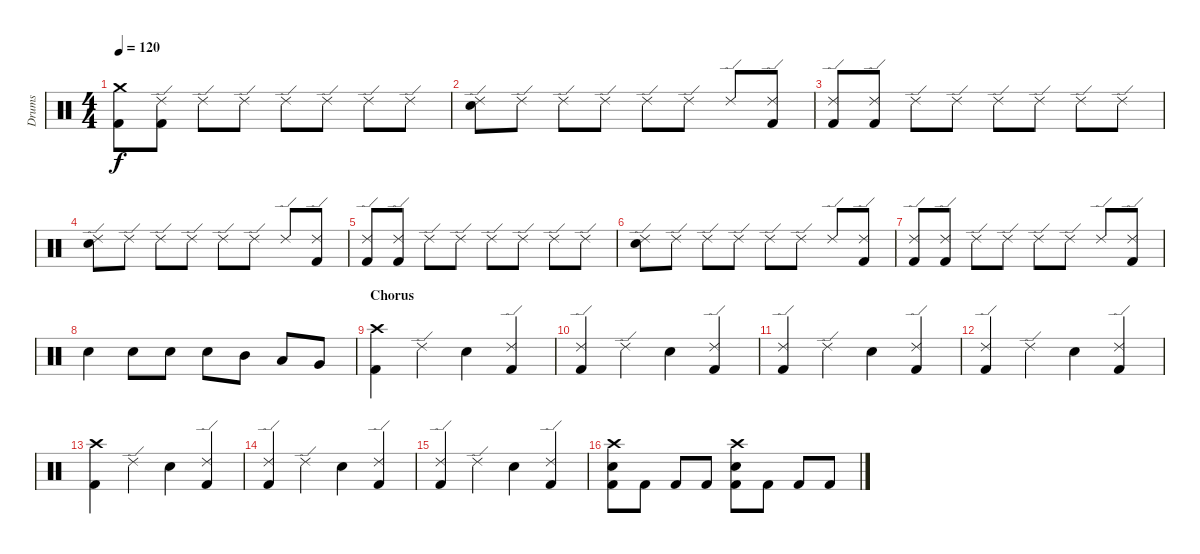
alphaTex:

\track ("Drums" "Drums") {instrument percussion}
\staff {score}
\articulation defaults
\ts (4 4)
\tempo 120
\clef neutral
\ks c
("Crash medium (hit)" "Kick (hit) 2").8{dy f} ("Ride (edge) 2" "Kick (hit) 2").8 "Ride (edge) 2".8 "Ride (edge) 2".8 "Ride (edge) 2".8 "Ride (edge) 2".8 "Ride (edge) 2".8 "Ride (edge) 2".8 |
("Ride (edge) 2" "Snare (hit) 2").8 "Ride (edge) 2".8 "Ride (edge) 2".8 "Ride (edge) 2".8 "Ride (edge) 2".8 "Ride (edge) 2".8 "Ride (edge) 2".8 ("Ride (edge) 2" "Kick (hit) 2").8 |
("Ride (edge) 2" "Kick (hit) 2").8 ("Ride (edge) 2" "Kick (hit) 2").8 "Ride (edge) 2".8 "Ride (edge) 2".8 "Ride (edge) 2".8 "Ride (edge) 2".8 "Ride (edge) 2".8 "Ride (edge) 2".8 |
("Ride (edge) 2" "Snare (hit) 2").8 "Ride (edge) 2".8 "Ride (edge) 2".8 "Ride (edge) 2".8 "Ride (edge) 2".8 "Ride (edge) 2".8 "Ride (edge) 2".8 ("Ride (edge) 2" "Kick (hit) 2").8 |
("Ride (edge) 2" "Kick (hit) 2").8 ("Ride (edge) 2" "Kick (hit) 2").8 "Ride (edge) 2".8 "Ride (edge) 2".8 "Ride (edge) 2".8 "Ride (edge) 2".8 "Ride (edge) 2".8 "Ride (edge) 2".8 |
("Ride (edge) 2" "Snare (hit) 2").8 "Ride (edge) 2".8 "Ride (edge) 2".8 "Ride (edge) 2".8 "Ride (edge) 2".8 "Ride (edge) 2".8 "Ride (edge) 2".8 ("Ride (edge) 2" "Kick (hit) 2").8 |
("Ride (edge) 2" "Kick (hit) 2").8 ("Ride (edge) 2" "Kick (hit) 2").8 "Ride (edge) 2".8 "Ride (edge) 2".8 "Ride (edge) 2".8 "Ride (edge) 2".8 "Ride (edge) 2".8 ("Ride (edge) 2" "Kick (hit) 2").8 |
"Snare (hit) 2".4 "Snare (hit) 2".8 "Snare (hit) 2".8 "Snare (hit) 2".8 "Mid Tom (hit)".8 "Low Tom (hit)".8 "Very Low Tom (hit)".8 |
\section ("" "Chorus")
("Crash high (hit)" "Kick (hit) 2").4 "Ride (edge) 2".4 "Snare (hit) 2".4 ("Ride (edge) 2" "Kick (hit) 2").4 |
("Ride (edge) 2" "Kick (hit) 2").4 "Ride (edge) 2".4 "Snare (hit) 2".4 ("Ride (edge) 2" "Kick (hit) 2").4 |
("Ride (edge) 2" "Kick (hit) 2").4 "Ride (edge) 2".4 "Snare (hit) 2".4 ("Ride (edge) 2" "Kick (hit) 2").4 |
("Ride (edge) 2" "Kick (hit) 2").4 "Ride (edge) 2".4 "Snare (hit) 2".4 ("Ride (edge) 2" "Kick (hit) 2").4 |
("Crash high (hit)" "Kick (hit) 2").4 "Ride (edge) 2".4 "Snare (hit) 2".4 ("Ride (edge) 2" "Kick (hit) 2").4 |
("Ride (edge) 2" "Kick (hit) 2").4 "Ride (edge) 2".4 "Snare (hit) 2".4 ("Ride (edge) 2" "Kick (hit) 2").4 |
("Ride (edge) 2" "Kick (hit) 2").4 "Ride (edge) 2".4 "Snare (hit) 2".4 ("Ride (edge) 2" "Kick (hit) 2").4 |
("Crash high (hit)" "Snare (hit) 2" "Kick (hit) 2").8 "Kick (hit) 2".8 "Kick (hit) 2".8 "Kick (hit) 2".8 ("Crash high (hit)" "Snare (hit) 2" "Kick (hit) 2").8 "Kick (hit) 2".8 "Kick (hit) 2".8 "Kick (hit) 2".8
